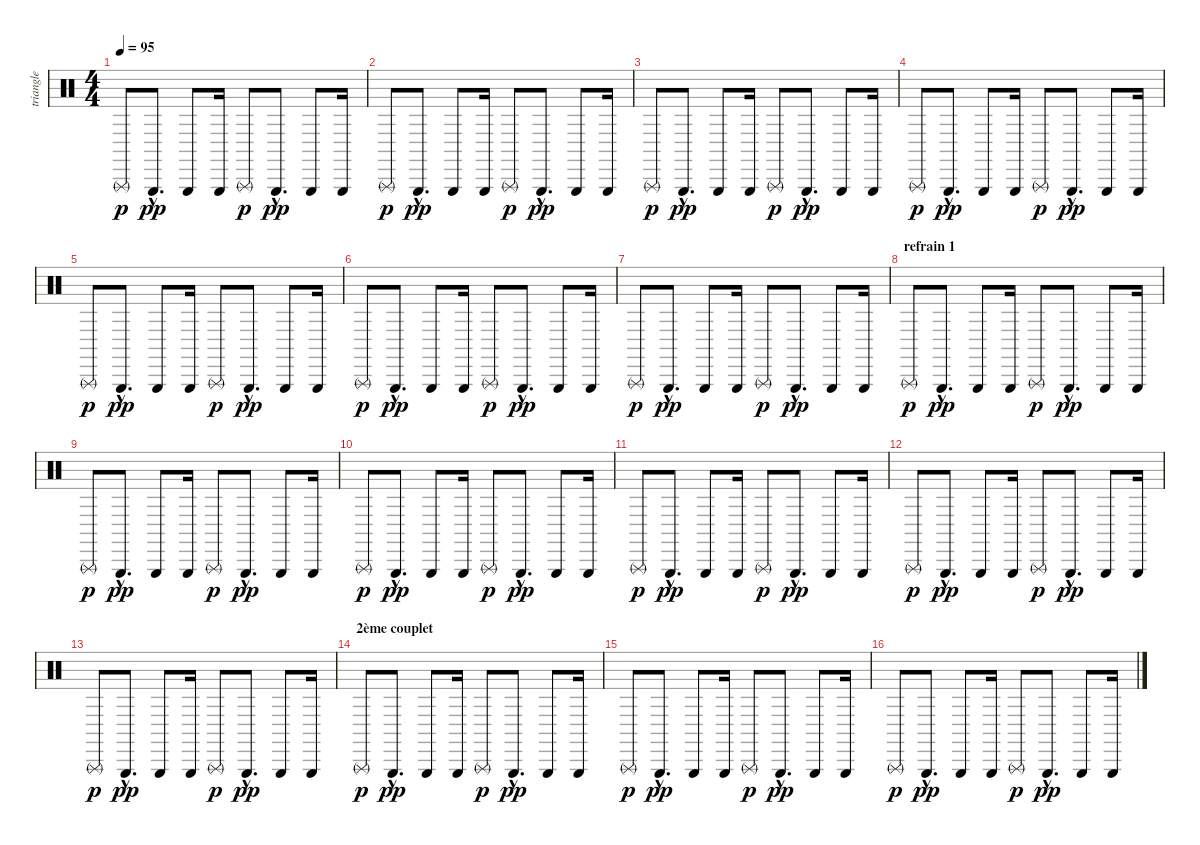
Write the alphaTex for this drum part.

\track ("triangle" "triangle") {instrument percussion}
\staff {score}
\articulation defaults
\ts (4 4)
\tempo 95
\clef neutral
\ks c "Triangle (rnute)".8{dy p} "Triangle (hit)"{hac}.8{d dy pp} "Triangle (hit)".8 "Triangle (hit)".16 "Triangle (rnute)".8{dy p} "Triangle (hit)"{hac}.8{d dy pp} "Triangle (hit)".8 "Triangle (hit)".16
|
"Triangle (rnute)".8{dy p} "Triangle (hit)"{hac}.8{d dy pp} "Triangle (hit)".8 "Triangle (hit)".16 "Triangle (rnute)".8{dy p} "Triangle (hit)"{hac}.8{d dy pp} "Triangle (hit)".8 "Triangle (hit)".16 |
"Triangle (rnute)".8{dy p} "Triangle (hit)"{hac}.8{d dy pp} "Triangle (hit)".8 "Triangle (hit)".16 "Triangle (rnute)".8{dy p} "Triangle (hit)"{hac}.8{d dy pp} "Triangle (hit)".8 "Triangle (hit)".16 |
"Triangle (rnute)".8{dy p} "Triangle (hit)"{hac}.8{d dy pp} "Triangle (hit)".8 "Triangle (hit)".16 "Triangle (rnute)".8{dy p} "Triangle (hit)"{hac}.8{d dy pp} "Triangle (hit)".8 "Triangle (hit)".16 |
"Triangle (rnute)".8{dy p} "Triangle (hit)"{hac}.8{d dy pp} "Triangle (hit)".8 "Triangle (hit)".16 "Triangle (rnute)".8{dy p} "Triangle (hit)"{hac}.8{d dy pp} "Triangle (hit)".8 "Triangle (hit)".16 |
"Triangle (rnute)".8{dy p} "Triangle (hit)"{hac}.8{d dy pp} "Triangle (hit)".8 "Triangle (hit)".16 "Triangle (rnute)".8{dy p} "Triangle (hit)"{hac}.8{d dy pp} "Triangle (hit)".8 "Triangle (hit)".16 |
"Triangle (rnute)".8{dy p} "Triangle (hit)"{hac}.8{d dy pp} "Triangle (hit)".8 "Triangle (hit)".16 "Triangle (rnute)".8{dy p} "Triangle (hit)"{hac}.8{d dy pp} "Triangle (hit)".8 "Triangle (hit)".16 |
\section ("" "refrain 1")
"Triangle (rnute)".8{dy p} "Triangle (hit)"{hac}.8{d dy pp} "Triangle (hit)".8 "Triangle (hit)".16 "Triangle (rnute)".8{dy p} "Triangle (hit)"{hac}.8{d dy pp} "Triangle (hit)".8 "Triangle (hit)".16 |
"Triangle (rnute)".8{dy p} "Triangle (hit)"{hac}.8{d dy pp} "Triangle (hit)".8 "Triangle (hit)".16 "Triangle (rnute)".8{dy p} "Triangle (hit)"{hac}.8{d dy pp} "Triangle (hit)".8 "Triangle (hit)".16 |
"Triangle (rnute)".8{dy p} "Triangle (hit)"{hac}.8{d dy pp} "Triangle (hit)".8 "Triangle (hit)".16 "Triangle (rnute)".8{dy p} "Triangle (hit)"{hac}.8{d dy pp} "Triangle (hit)".8 "Triangle (hit)".16 |
"Triangle (rnute)".8{dy p} "Triangle (hit)"{hac}.8{d dy pp} "Triangle (hit)".8 "Triangle (hit)".16 "Triangle (rnute)".8{dy p} "Triangle (hit)"{hac}.8{d dy pp} "Triangle (hit)".8 "Triangle (hit)".16 |
"Triangle (rnute)".8{dy p} "Triangle (hit)"{hac}.8{d dy pp} "Triangle (hit)".8 "Triangle (hit)".16 "Triangle (rnute)".8{dy p} "Triangle (hit)"{hac}.8{d dy pp} "Triangle (hit)".8 "Triangle (hit)".16 |
"Triangle (rnute)".8{dy p} "Triangle (hit)"{hac}.8{d dy pp} "Triangle (hit)".8 "Triangle (hit)".16 "Triangle (rnute)".8{dy p} "Triangle (hit)"{hac}.8{d dy pp} "Triangle (hit)".8 "Triangle (hit)".16 |
\section ("" "2ème couplet")
"Triangle (rnute)".8{dy p} "Triangle (hit)"{hac}.8{d dy pp} "Triangle (hit)".8 "Triangle (hit)".16 "Triangle (rnute)".8{dy p} "Triangle (hit)"{hac}.8{d dy pp} "Triangle (hit)".8 "Triangle (hit)".16 |
"Triangle (rnute)".8{dy p} "Triangle (hit)"{hac}.8{d dy pp} "Triangle (hit)".8 "Triangle (hit)".16 "Triangle (rnute)".8{dy p} "Triangle (hit)"{hac}.8{d dy pp} "Triangle (hit)".8 "Triangle (hit)".16 |
"Triangle (rnute)".8{dy p} "Triangle (hit)"{hac}.8{d dy pp} "Triangle (hit)".8 "Triangle (hit)".16 "Triangle (rnute)".8{dy p} "Triangle (hit)"{hac}.8{d dy pp} "Triangle (hit)".8 "Triangle (hit)".16
